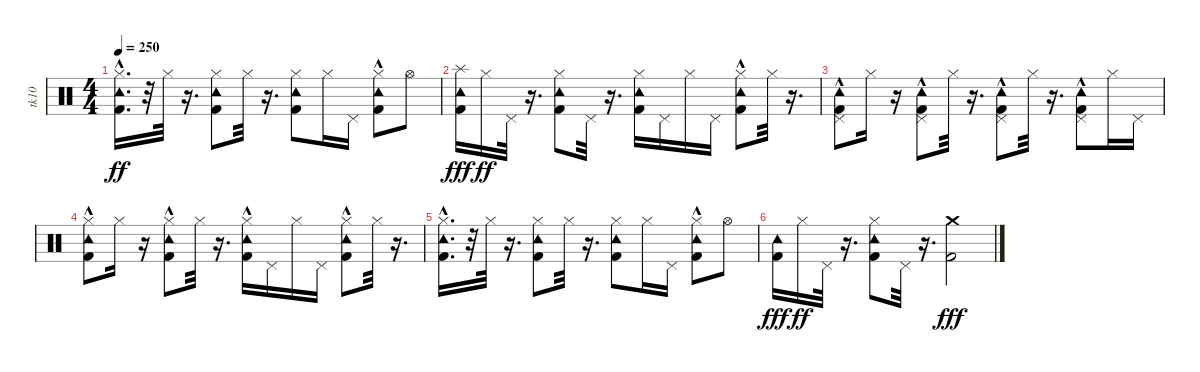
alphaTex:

\track ("tk10" "tk10") {instrument percussion}
\staff {score}
\articulation defaults
\ts (4 4)
\tempo 250
\clef neutral
\ks c
("Kick (hit) 2"{hac} "Tambourine (hit)"{hac} "Hi-Hat (closed)").16{d dy ff} r.32 "Hi-Hat (closed)".32 r.16{d} ("Kick (hit) 2" "Tambourine (hit)" "Hi-Hat (closed)").8 "Hi-Hat (closed)".32 r.16{d} ("Kick (hit) 2" "Tambourine (hit)" "Hi-Hat (closed)").8 "Hi-Hat (closed)".16 "Pedal Hi-Hat (hit)".16 ("Kick (hit) 2" "Tambourine (hit)"{hac} "Hi-Hat (closed)").8 "Hi-Hat (open)".8 |
("Kick (hit) 2" "Tambourine (hit)" "Splash (hit)").16{dy fff} "Hi-Hat (closed)".16{dy ff} "Pedal Hi-Hat (hit)".32 r.16{d} ("Kick (hit) 2" "Tambourine (hit)" "Hi-Hat (closed)").8 "Pedal Hi-Hat (hit)".32 r.16{d} ("Kick (hit) 2" "Tambourine (hit)" "Hi-Hat (closed)").16 "Pedal Hi-Hat (hit)".16 "Hi-Hat (closed)".16 "Pedal Hi-Hat (hit)".16 ("Kick (hit) 2" "Tambourine (hit)"{hac} "Hi-Hat (closed)").8 "Hi-Hat (closed)".32 r.16{d} |
("Kick (hit) 2" "Tambourine (hit)"{hac} "Pedal Hi-Hat (hit)").8 "Hi-Hat (closed)".16 r.16 ("Kick (hit) 2" "Tambourine (hit)"{hac} "Pedal Hi-Hat (hit)").8 "Hi-Hat (closed)".32 r.16{d} ("Kick (hit) 2" "Tambourine (hit)"{hac} "Pedal Hi-Hat (hit)").8 "Hi-Hat (closed)".32 r.16{d} ("Kick (hit) 2" "Tambourine (hit)"{hac} "Pedal Hi-Hat (hit)").8 "Hi-Hat (closed)".16 "Pedal Hi-Hat (hit)".16 |
("Kick (hit) 2" "Tambourine (hit)"{hac} "Hi-Hat (closed)").8 "Hi-Hat (closed)".16 r.16 ("Kick (hit) 2" "Tambourine (hit)"{hac} "Hi-Hat (closed)").8 "Hi-Hat (closed)".32 r.16{d} ("Kick (hit) 2" "Tambourine (hit)"{hac} "Hi-Hat (closed)").16 "Pedal Hi-Hat (hit)".16 "Hi-Hat (closed)".16 "Pedal Hi-Hat (hit)".16 ("Kick (hit) 2" "Tambourine (hit)"{hac} "Hi-Hat (closed)").8 "Hi-Hat (closed)".32 r.16{d} |
("Kick (hit) 2"{hac} "Tambourine (hit)"{hac} "Hi-Hat (closed)").16{d} r.32 "Hi-Hat (closed)".32 r.16{d} ("Kick (hit) 2" "Tambourine (hit)" "Hi-Hat (closed)").8 "Hi-Hat (closed)".32 r.16{d} ("Kick (hit) 2" "Tambourine (hit)" "Hi-Hat (closed)").8 "Hi-Hat (closed)".16 "Pedal Hi-Hat (hit)".16 ("Kick (hit) 2" "Tambourine (hit)"{hac} "Hi-Hat (closed)").8 "Hi-Hat (open)".8 |
("Kick (hit) 2" "Tambourine (hit)").16{dy fff} "Hi-Hat (closed)".16{dy ff} "Pedal Hi-Hat (hit)".32 r.16{d} ("Kick (hit) 2" "Tambourine (hit)" "Hi-Hat (closed)").8 "Pedal Hi-Hat (hit)".32 r.16{d} ("Crash medium (hit)" "Kick (hit) 2").2{dy fff}
